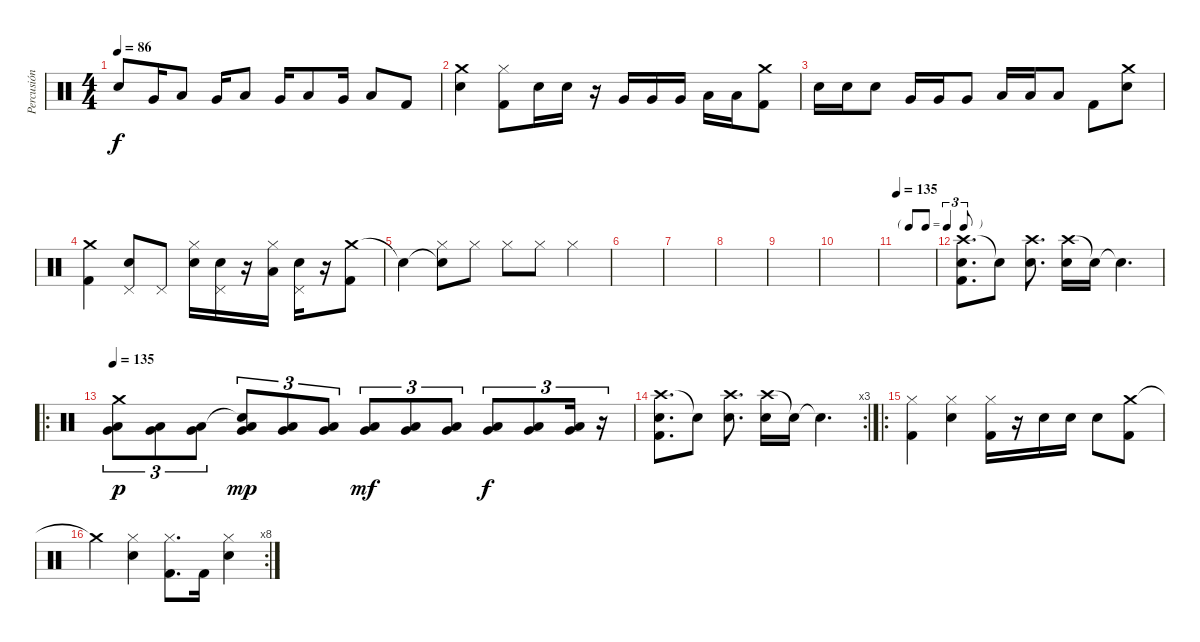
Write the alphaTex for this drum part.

\track ("Percusión" "Percusión") {instrument percussion}
\staff {score}
\articulation defaults
\ts (4 4)
\tempo 86
\clef neutral
\ks c "Snare (hit) 2".8{dy f} "Very Low Tom (hit)".16 "Low Floor Tom (hit)".8 "Very Low Tom (hit)".16 "Low Floor Tom (hit)".8 "Very Low Tom (hit)".16 "Low Floor Tom (hit)".8 "Very Low Tom (hit)".16 "Low Floor Tom (hit)".8 "Kick (hit) 2".8
|
("Crash medium (hit)" "Snare (hit) 2").4 ("Hi-Hat (closed)" "Kick (hit) 2").8 "Snare (hit) 2".16 "Snare (hit) 2".16 r.16 "Very Low Tom (hit)".16 "Very Low Tom (hit)".16 "Very Low Tom (hit)".16 "Low Tom (hit)".16 "Low Tom (hit)".16 ("Crash medium (hit)" "Kick (hit) 2").8 |
"Snare (hit) 2".16 "Snare (hit) 2".16 "Snare (hit) 2".8 "Very Low Tom (hit)".16 "Very Low Tom (hit)".16 "Very Low Tom (hit)".8 "Low Floor Tom (hit)".16 "Low Floor Tom (hit)".16 "Low Floor Tom (hit)".8 "Kick (hit) 2".8 ("Crash medium (hit)" "Snare (hit) 2").8 |
("Crash medium (hit)" "Kick (hit) 2").4 ("Pedal Hi-Hat (hit)" "Snare (hit) 2").8 "Pedal Hi-Hat (hit)".8 ("Hi-Hat (closed)" "Snare (hit) 2").16 ("Pedal Hi-Hat (hit)" "Snare (hit) 2").16 r.16 ("Hi-Hat (closed)" "Low Floor Tom (hit)").16 ("Pedal Hi-Hat (hit)" "Snare (hit) 2").16 r.16 ("Crash medium (hit)" "Kick (hit) 2").8 |
"Snare (hit)"{t}.4{volume 11} ("Snare (hit)"{t} "Hi-Hat (closed)").8 "Hi-Hat (closed)".8 "Hi-Hat (closed)".8 "Hi-Hat (closed)".8 "Hi-Hat (closed)".4 |
|
|
|
|
|
\tf triplet8th
\tempo 135
|
("Crash high (hit)" "Kick (hit) 2" "Snare (hit) 2").8{d} "Snare (hit)"{t}.8 ("Crash high (hit)" "Snare (hit) 2").8{d} ("Crash high (hit)" "Snare (hit) 2").16 "Snare (hit)"{t}.16 "Snare (hit)"{t}.4{d} |
\ro
\tempo 135
("Crash medium (hit)" "Low Floor Tom (hit)" "Very Low Tom (hit)").8{tu (3 2) dy p} ("Low Floor Tom (hit)" "Very Low Tom (hit)").8{tu (3 2)} ("Low Floor Tom (hit)" "Very Low Tom (hit)").8{tu (3 2)} ("Snare (hit)"{t} "Low Floor Tom (hit)" "Very Low Tom (hit)").8{tu (3 2) dy mp} ("Low Floor Tom (hit)" "Very Low Tom (hit)").8{tu (3 2)} ("Low Floor Tom (hit)" "Very Low Tom (hit)").8{tu (3 2)} ("Low Floor Tom (hit)" "Very Low Tom (hit)").8{tu (3 2) dy mf} ("Low Floor Tom (hit)" "Very Low Tom (hit)").8{tu (3 2)} ("Low Floor Tom (hit)" "Very Low Tom (hit)").8{tu (3 2)} ("Low Floor Tom (hit)" "Very Low Tom (hit)").8{tu (3 2) dy f} ("Low Floor Tom (hit)" "Very Low Tom (hit)").8{tu (3 2)} ("Low Floor Tom (hit)" "Very Low Tom (hit)").16{tu (3 2)} r.16{tu (3 2)} |
\rc 3
("Crash high (hit)" "Kick (hit) 2" "Snare (hit) 2").8{d} "Snare (hit)"{t}.8 ("Crash high (hit)" "Snare (hit) 2").8{d} ("Crash high (hit)" "Snare (hit) 2").16 "Snare (hit)"{t}.16 "Snare (hit)"{t}.4{d} |
\ro
("Hi-Hat (closed)" "Kick (hit) 2").4 ("Hi-Hat (closed)" "Snare (hit) 2").4 ("Hi-Hat (closed)" "Kick (hit) 2").16 r.16 "Snare (hit) 2".16 "Snare (hit) 2".16 "Snare (hit) 2".8 ("Crash medium (hit)" "Kick (hit) 2").8 |
\rc 8 "Crash medium (hit)"{t}.4
("Hi-Hat (closed)" "Snare (hit) 2").4 ("Hi-Hat (closed)" "Kick (hit) 2").8{d} "Kick (hit) 2".16 ("Hi-Hat (closed)" "Snare (hit) 2").4
